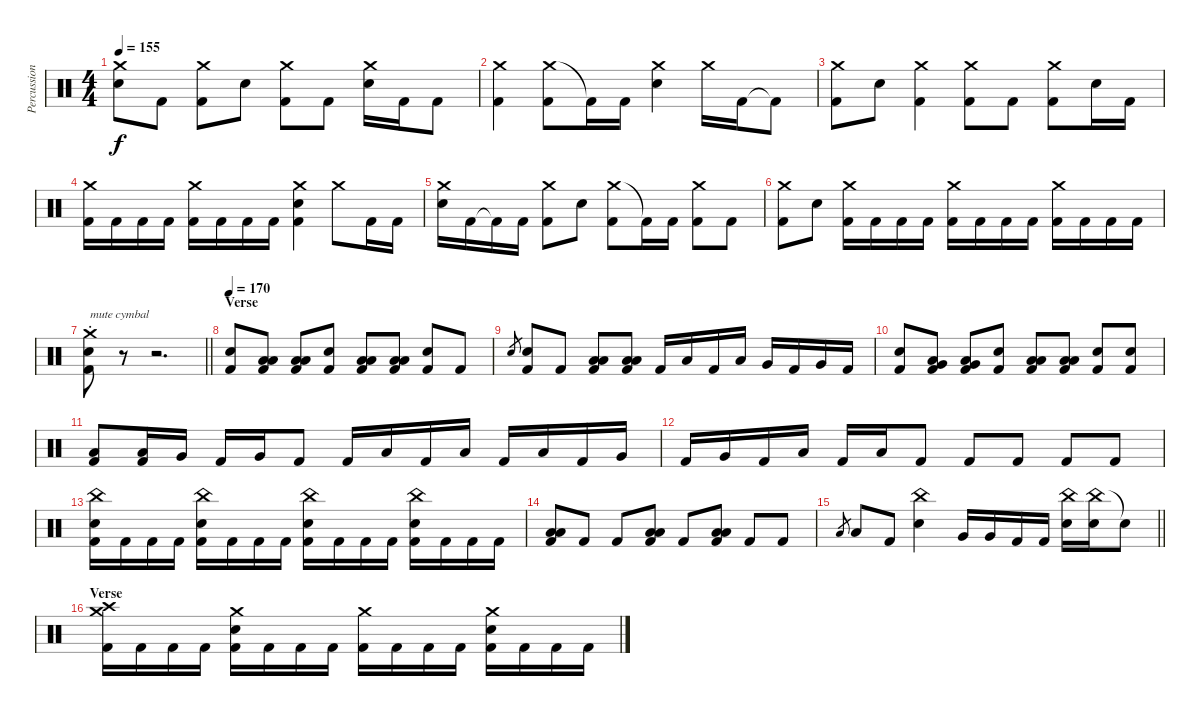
\track ("Percussion" "Percussion") {instrument percussion}
\staff {score}
\articulation defaults
\ts (4 4)
\tempo 155
\clef neutral
\ks c
("Crash medium (hit)" "Electric Snare (hit)").8{dy f} "Kick (hit) 2".8 ("Crash medium (hit)" "Kick (hit) 2").8 "Electric Snare (hit)".8 ("Crash medium (hit)" "Kick (hit) 2").8 "Kick (hit) 2".8 ("Crash medium (hit)" "Electric Snare (hit)").16 "Kick (hit) 2".16 "Kick (hit) 2".8 |
("Crash medium (hit)" "Kick (hit) 2").4 ("Crash medium (hit)" "Kick (hit) 2").8 "Kick (hit) 2"{t}.16 "Kick (hit) 2".16 ("Crash medium (hit)" "Electric Snare (hit)").4 "Crash medium (hit)".16 "Kick (hit) 2".16 "Kick (hit) 2"{t}.8 |
("Crash medium (hit)" "Kick (hit) 2").8 "Electric Snare (hit)".8 ("Crash medium (hit)" "Kick (hit) 2").4 ("Crash medium (hit)" "Kick (hit) 2").8 "Kick (hit) 2".8 ("Crash medium (hit)" "Kick (hit) 2").8 "Electric Snare (hit)".16 "Kick (hit) 2".16 |
("Crash medium (hit)" "Kick (hit) 2").16 "Kick (hit) 2".16 "Kick (hit) 2".16 "Kick (hit) 2".16 ("Crash medium (hit)" "Kick (hit) 2").16 "Kick (hit) 2".16 "Kick (hit) 2".16 "Kick (hit) 2".16 ("Crash medium (hit)" "Electric Snare (hit)" "Kick (hit) 2").4 "Crash medium (hit)".8 "Kick (hit) 2".16 "Kick (hit) 2".16 |
("Crash medium (hit)" "Electric Snare (hit)").16 "Kick (hit) 2".16 "Kick (hit) 2"{t}.16 "Kick (hit) 2".16 ("Crash medium (hit)" "Kick (hit) 2").8 "Electric Snare (hit)".8 ("Crash medium (hit)" "Kick (hit) 2").8 "Kick (hit) 2"{t}.16 "Kick (hit) 2".16 ("Crash medium (hit)" "Kick (hit) 2").8 "Kick (hit) 2".8 |
("Crash medium (hit)" "Kick (hit) 2").8 "Electric Snare (hit)".8 ("Crash medium (hit)" "Kick (hit) 2").16 "Kick (hit) 2".16 "Kick (hit) 2".16 "Kick (hit) 2".16 ("Crash medium (hit)" "Kick (hit) 2").16 "Kick (hit) 2".16 "Kick (hit) 2".16 "Kick (hit) 2".16 ("Crash medium (hit)" "Kick (hit) 2").16 "Kick (hit) 2".16 "Kick (hit) 2".16 "Kick (hit) 2".16 |
\barLineRight lightlight
("Crash medium (hit)"{st} "Electric Snare (hit)" "Kick (hit) 2").8{txt "mute cymbal"} r.8{volume 0} r.2{d} |
\section ("" "Verse")
\tempo 170
("Electric Snare (hit)" "Kick (hit) 2").8{volume 14} ("Low Tom (hit)" "Low Floor Tom (hit)" "Kick (hit) 2").8 ("Low Tom (hit)" "Low Floor Tom (hit)" "Kick (hit) 2").8 ("Electric Snare (hit)" "Kick (hit) 2").8 ("Low Tom (hit)" "Low Floor Tom (hit)" "Kick (hit) 2").8 ("Low Tom (hit)" "Low Floor Tom (hit)" "Kick (hit) 2").8 ("Electric Snare (hit)" "Kick (hit) 2").8 "Kick (hit) 2".8 |
"Electric Snare (hit)".8{gr} ("Electric Snare (hit)" "Kick (hit) 2").8 "Kick (hit) 2".8 ("Low Tom (hit)" "Low Floor Tom (hit)" "Kick (hit) 2").8 ("Low Tom (hit)" "Low Floor Tom (hit)" "Kick (hit) 2").8 "Kick (hit) 2".16 "Low Tom (hit)".16 "Kick (hit) 2".16 "Low Tom (hit)".16 "Very Low Tom (hit)".16 "Kick (hit) 2".16 "Very Low Tom (hit)".16 "Kick (hit) 2".16 |
("Electric Snare (hit)" "Kick (hit) 2").8 ("Very Low Tom (hit)" "Low Floor Tom (hit)" "Kick (hit) 2").8 ("Very Low Tom (hit)" "Low Floor Tom (hit)" "Kick (hit) 2").8 ("Electric Snare (hit)" "Kick (hit) 2").8 ("Low Tom (hit)" "Low Floor Tom (hit)" "Kick (hit) 2").8 ("Low Tom (hit)" "Low Floor Tom (hit)" "Kick (hit) 2").8 ("Electric Snare (hit)" "Kick (hit) 2").8 ("Electric Snare (hit)" "Kick (hit) 2").8 |
("Low Tom (hit)" "Kick (hit) 2").8 ("Low Tom (hit)" "Kick (hit) 2").16 "Very Low Tom (hit)".16 "Kick (hit) 2".16 "Very Low Tom (hit)".16 "Kick (hit) 2".8 "Kick (hit) 2".16 "Low Tom (hit)".16 "Kick (hit) 2".16 "Low Tom (hit)".16 "Kick (hit) 2".16 "Low Tom (hit)".16 "Kick (hit) 2".16 "Very Low Tom (hit)".16 |
"Kick (hit) 2".16 "Very Low Tom (hit)".16 "Kick (hit) 2".16 "Low Floor Tom (hit)".16 "Kick (hit) 2".16 "Low Floor Tom (hit)".16 "Kick (hit) 2".8 "Kick (hit) 2".8 "Kick (hit) 2".8 "Kick (hit) 2".8 "Kick (hit) 2".8 |
("China (hit)" "Electric Snare (hit)" "Kick (hit) 2").16 "Kick (hit) 2".16 "Kick (hit) 2".16 "Kick (hit) 2".16 ("China (hit)" "Electric Snare (hit)" "Kick (hit) 2").16 "Kick (hit) 2".16 "Kick (hit) 2".16 "Kick (hit) 2".16 ("China (hit)" "Electric Snare (hit)" "Kick (hit) 2").16 "Kick (hit) 2".16 "Kick (hit) 2".16 "Kick (hit) 2".16 ("China (hit)" "Electric Snare (hit)" "Kick (hit) 2").16 "Kick (hit) 2".16 "Kick (hit) 2".16 "Kick (hit) 2".16 |
("Low Tom (hit)" "Low Floor Tom (hit)" "Kick (hit) 2").8 "Kick (hit) 2".8 "Kick (hit) 2".8 ("Low Tom (hit)" "Low Floor Tom (hit)" "Kick (hit) 2").8 "Kick (hit) 2".8 ("Low Tom (hit)" "Low Floor Tom (hit)" "Kick (hit) 2").8 "Kick (hit) 2".8 "Kick (hit) 2".8 |
\barLineRight lightlight "Low Floor Tom (hit)".8{gr} "Low Floor Tom (hit)".8 "Kick (hit) 2".8
("China (hit)" "Electric Snare (hit)").4 "Very Low Tom (hit)".16 "Very Low Tom (hit)".16 "Kick (hit) 2".16 "Kick (hit) 2".16 ("China (hit)" "Electric Snare (hit)").16 ("China (hit)" "Electric Snare (hit)").16 "Electric Snare (hit)"{t}.8 |
\section ("" "Verse")
("Crash medium (hit)" "Crash high (hit)" "Kick (hit) 2").16 "Kick (hit) 2".16 "Kick (hit) 2".16 "Kick (hit) 2".16 ("Crash medium (hit)" "Electric Snare (hit)" "Kick (hit) 2").16 "Kick (hit) 2".16 "Kick (hit) 2".16 "Kick (hit) 2".16 ("Crash medium (hit)" "Kick (hit) 2").16 "Kick (hit) 2".16 "Kick (hit) 2".16 "Kick (hit) 2".16 ("Crash medium (hit)" "Electric Snare (hit)" "Kick (hit) 2").16 "Kick (hit) 2".16 "Kick (hit) 2".16 "Kick (hit) 2".16
